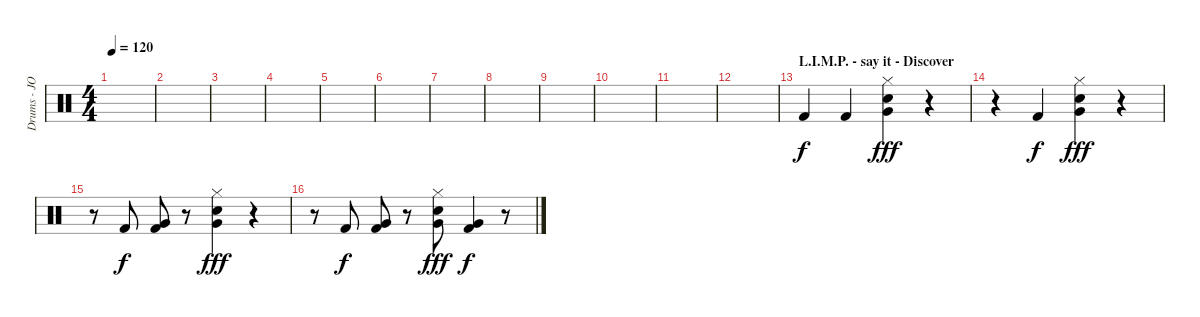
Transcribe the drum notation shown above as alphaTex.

\track ("Drums - JOHN" "Drums - JO") {instrument percussion}
\staff {score}
\articulation defaults
\ts (4 4)
\tempo 120
\clef neutral
\ks c
|
|
|
|
|
|
|
|
|
|
|
|
\section ("" "L.I.M.P. - say it - Discover")
"Kick (hit) 2".4 "Kick (hit) 2".4 ("Hi-Hat (closed)" "Very Low Tom (hit)" "Snare (hit) 2").4{dy fff} r.4 |
r.4 "Kick (hit) 2".4{dy f} ("Hi-Hat (closed)" "Very Low Tom (hit)" "Snare (hit) 2").4{dy fff} r.4 |
r.8 "Kick (hit) 2".8{dy f} ("Very Low Tom (hit)" "Kick (hit) 2").8 r.8 ("Hi-Hat (closed)" "Very Low Tom (hit)" "Snare (hit) 2").4{dy fff} r.4 |
r.8 "Kick (hit) 2".8{dy f} ("Very Low Tom (hit)" "Kick (hit) 2").8 r.8 ("Hi-Hat (closed)" "Very Low Tom (hit)" "Snare (hit) 2").8{dy fff} ("Very Low Tom (hit)" "Kick (hit) 2").4{dy f} r.8
